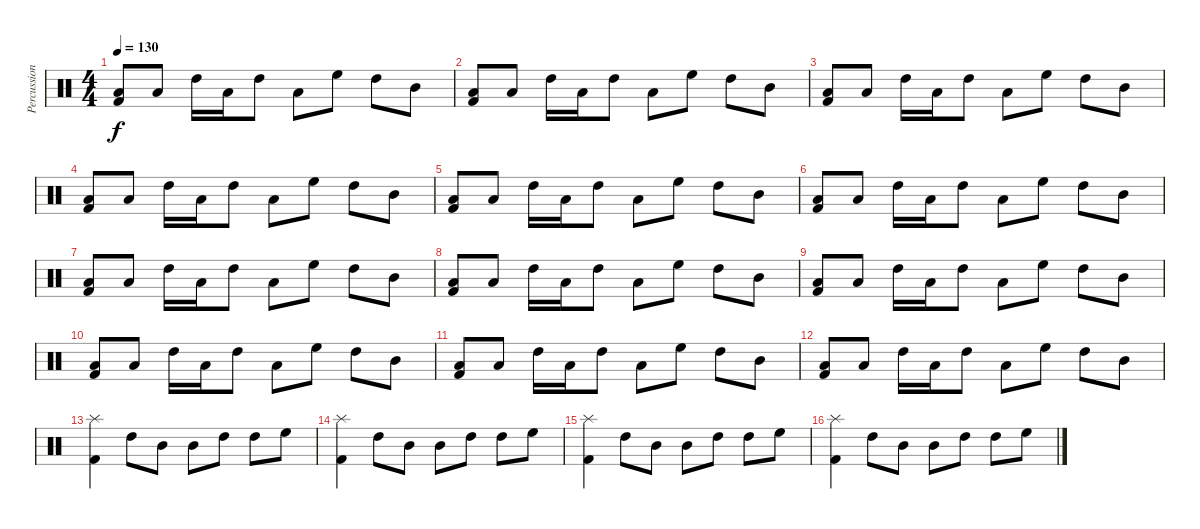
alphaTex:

\track ("Percussion" "Percussion") {instrument percussion}
\staff {score}
\articulation defaults
\ts (4 4)
\tempo 130
\clef neutral
\ks c
("Low Tom (hit)" "Kick (hit) 2").8{dy f} "Low Tom (hit)".8 "High Tom (hit)".16 "Low Tom (hit)".16 "High Tom (hit)".8 "Low Tom (hit)".8 "High Floor Tom (hit)".8 "High Tom (hit)".8 "Mid Tom (hit)".8 |
("Low Tom (hit)" "Kick (hit) 2").8 "Low Tom (hit)".8 "High Tom (hit)".16 "Low Tom (hit)".16 "High Tom (hit)".8 "Low Tom (hit)".8 "High Floor Tom (hit)".8 "High Tom (hit)".8 "Mid Tom (hit)".8 |
("Low Tom (hit)" "Kick (hit) 2").8 "Low Tom (hit)".8 "High Tom (hit)".16 "Low Tom (hit)".16 "High Tom (hit)".8 "Low Tom (hit)".8 "High Floor Tom (hit)".8 "High Tom (hit)".8 "Mid Tom (hit)".8 |
("Low Tom (hit)" "Kick (hit) 2").8 "Low Tom (hit)".8 "High Tom (hit)".16 "Low Tom (hit)".16 "High Tom (hit)".8 "Low Tom (hit)".8 "High Floor Tom (hit)".8 "High Tom (hit)".8 "Mid Tom (hit)".8 |
("Low Tom (hit)" "Kick (hit) 2").8 "Low Tom (hit)".8 "High Tom (hit)".16 "Low Tom (hit)".16 "High Tom (hit)".8 "Low Tom (hit)".8 "High Floor Tom (hit)".8 "High Tom (hit)".8 "Mid Tom (hit)".8 |
("Low Tom (hit)" "Kick (hit) 2").8 "Low Tom (hit)".8 "High Tom (hit)".16 "Low Tom (hit)".16 "High Tom (hit)".8 "Low Tom (hit)".8 "High Floor Tom (hit)".8 "High Tom (hit)".8 "Mid Tom (hit)".8 |
("Low Tom (hit)" "Kick (hit) 2").8 "Low Tom (hit)".8 "High Tom (hit)".16 "Low Tom (hit)".16 "High Tom (hit)".8 "Low Tom (hit)".8 "High Floor Tom (hit)".8 "High Tom (hit)".8 "Mid Tom (hit)".8 |
("Low Tom (hit)" "Kick (hit) 2").8 "Low Tom (hit)".8 "High Tom (hit)".16 "Low Tom (hit)".16 "High Tom (hit)".8 "Low Tom (hit)".8 "High Floor Tom (hit)".8 "High Tom (hit)".8 "Mid Tom (hit)".8 |
("Low Tom (hit)" "Kick (hit) 2").8 "Low Tom (hit)".8 "High Tom (hit)".16 "Low Tom (hit)".16 "High Tom (hit)".8 "Low Tom (hit)".8 "High Floor Tom (hit)".8 "High Tom (hit)".8 "Mid Tom (hit)".8 |
("Low Tom (hit)" "Kick (hit) 2").8 "Low Tom (hit)".8 "High Tom (hit)".16 "Low Tom (hit)".16 "High Tom (hit)".8 "Low Tom (hit)".8 "High Floor Tom (hit)".8 "High Tom (hit)".8 "Mid Tom (hit)".8 |
("Low Tom (hit)" "Kick (hit) 2").8 "Low Tom (hit)".8 "High Tom (hit)".16 "Low Tom (hit)".16 "High Tom (hit)".8 "Low Tom (hit)".8 "High Floor Tom (hit)".8 "High Tom (hit)".8 "Mid Tom (hit)".8 |
("Low Tom (hit)" "Kick (hit) 2").8 "Low Tom (hit)".8 "High Tom (hit)".16 "Low Tom (hit)".16 "High Tom (hit)".8 "Low Tom (hit)".8 "High Floor Tom (hit)".8 "High Tom (hit)".8 "Mid Tom (hit)".8 |
("Splash (hit)" "Kick (hit) 2").4 "High Tom (hit)".8 "Mid Tom (hit)".8 "Mid Tom (hit)".8 "High Tom (hit)".8 "High Tom (hit)".8 "High Floor Tom (hit)".8 |
("Splash (hit)" "Kick (hit) 2").4 "High Tom (hit)".8 "Mid Tom (hit)".8 "Mid Tom (hit)".8 "High Tom (hit)".8 "High Tom (hit)".8 "High Floor Tom (hit)".8 |
("Splash (hit)" "Kick (hit) 2").4 "High Tom (hit)".8 "Mid Tom (hit)".8 "Mid Tom (hit)".8 "High Tom (hit)".8 "High Tom (hit)".8 "High Floor Tom (hit)".8 |
("Splash (hit)" "Kick (hit) 2").4 "High Tom (hit)".8 "Mid Tom (hit)".8 "Mid Tom (hit)".8 "High Tom (hit)".8 "High Tom (hit)".8 "High Floor Tom (hit)".8
